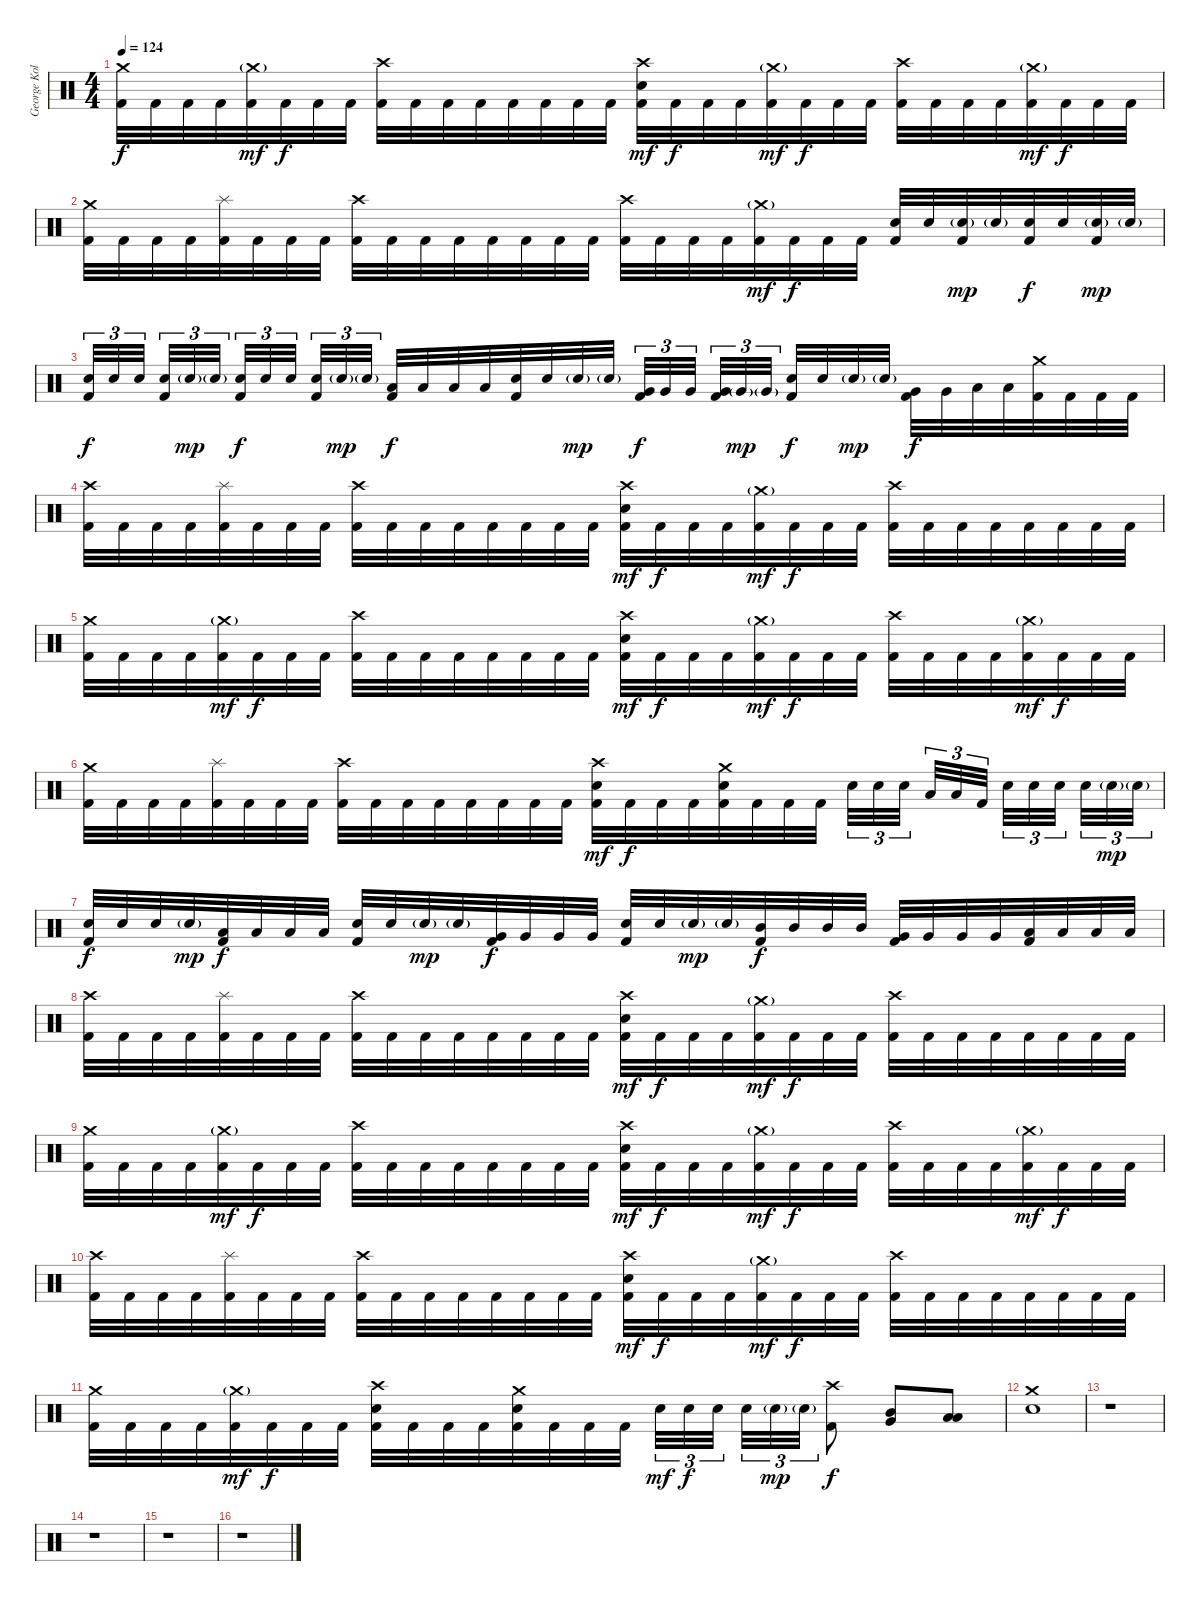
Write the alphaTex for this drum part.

\track ("George Kollias" "George Kol") {instrument percussion}
\staff {score}
\articulation defaults
\ts (4 4)
\tempo 124
\clef neutral
\ks c
("Crash medium (hit)" "Kick (hit) 2").32{dy f} "Kick (hit) 2".32 "Kick (hit) 2".32 "Kick (hit) 2".32 ("Crash medium (hit)"{g} "Kick (hit) 2").32{dy mf} "Kick (hit) 2".32{dy f} "Kick (hit) 2".32 "Kick (hit) 2".32 ("Crash high (hit)" "Kick (hit) 2").32 "Kick (hit) 2".32 "Kick (hit) 2".32 "Kick (hit) 2".32 "Kick (hit) 2".32 "Kick (hit) 2".32 "Kick (hit) 2".32 "Kick (hit) 2".32 ("Crash high (hit)" "Electric Snare (hit)" "Kick (hit) 2").32{dy mf} "Kick (hit) 2".32{dy f} "Kick (hit) 2".32 "Kick (hit) 2".32 ("Crash medium (hit)"{g} "Kick (hit) 2").32{dy mf} "Kick (hit) 2".32{dy f} "Kick (hit) 2".32 "Kick (hit) 2".32 ("Crash high (hit)" "Kick (hit) 2").32 "Kick (hit) 2".32 "Kick (hit) 2".32 "Kick (hit) 2".32 ("Crash medium (hit)"{g} "Kick (hit) 2").32{dy mf} "Kick (hit) 2".32{dy f} "Kick (hit) 2".32 "Kick (hit) 2".32 |
("Crash medium (hit)" "Kick (hit) 2").32 "Kick (hit) 2".32 "Kick (hit) 2".32 "Kick (hit) 2".32 ("Splash (hit)" "Kick (hit) 2").32 "Kick (hit) 2".32 "Kick (hit) 2".32 "Kick (hit) 2".32 ("Crash high (hit)" "Kick (hit) 2").32 "Kick (hit) 2".32 "Kick (hit) 2".32 "Kick (hit) 2".32 "Kick (hit) 2".32 "Kick (hit) 2".32 "Kick (hit) 2".32 "Kick (hit) 2".32 ("Crash high (hit)" "Kick (hit) 2").32 "Kick (hit) 2".32 "Kick (hit) 2".32 "Kick (hit) 2".32 ("Crash medium (hit)"{g} "Kick (hit) 2").32{dy mf} "Kick (hit) 2".32{dy f} "Kick (hit) 2".32 "Kick (hit) 2".32 ("Electric Snare (hit)" "Kick (hit) 2").32 "Electric Snare (hit)".32 ("Electric Snare (hit)"{g} "Kick (hit) 2").32{dy mp} "Electric Snare (hit)"{g}.32 ("Electric Snare (hit)" "Kick (hit) 2").32{dy f} "Electric Snare (hit)".32 ("Electric Snare (hit)"{g} "Kick (hit) 2").32{dy mp} "Electric Snare (hit)"{g}.32 |
("Electric Snare (hit)" "Kick (hit) 2").32{tu (3 2) dy f} "Electric Snare (hit)".32{tu (3 2)} "Electric Snare (hit)".32{tu (3 2) beam splitsecondary} ("Electric Snare (hit)" "Kick (hit) 2").32{tu (3 2)} "Electric Snare (hit)"{g}.32{tu (3 2) dy mp} "Electric Snare (hit)"{g}.32{tu (3 2) beam splitsecondary} ("Electric Snare (hit)" "Kick (hit) 2").32{tu (3 2) dy f} "Electric Snare (hit)".32{tu (3 2)} "Electric Snare (hit)".32{tu (3 2) beam splitsecondary} ("Electric Snare (hit)" "Kick (hit) 2").32{tu (3 2)} "Electric Snare (hit)"{g}.32{tu (3 2) dy mp} "Electric Snare (hit)"{g}.32{tu (3 2)} ("Low Tom (hit)" "Kick (hit) 2").32{dy f} "Low Tom (hit)".32 "Low Tom (hit)".32 "Low Tom (hit)".32 ("Electric Snare (hit)" "Kick (hit) 2").32 "Electric Snare (hit)".32 "Electric Snare (hit)"{g}.32{dy mp} "Electric Snare (hit)"{g}.32 ("Very Low Tom (hit)" "Kick (hit) 2").32{tu (3 2) dy f} "Very Low Tom (hit)".32{tu (3 2)} "Very Low Tom (hit)".32{tu (3 2) beam splitsecondary} ("Very Low Tom (hit)" "Kick (hit) 2").32{tu (3 2)} "Very Low Tom (hit)"{g}.32{tu (3 2) dy mp} "Very Low Tom (hit)"{g}.32{tu (3 2) beam splitsecondary} ("Electric Snare (hit)" "Kick (hit) 2").32{dy f} "Electric Snare (hit)".32 "Electric Snare (hit)"{g}.32{dy mp} "Electric Snare (hit)"{g}.32 ("Very Low Tom (hit)" "Kick (hit) 2").32{dy f} "Very Low Tom (hit)".32 "Low Floor Tom (hit)".32 "Low Floor Tom (hit)".32 ("Crash medium (hit)" "Kick (hit) 2").32 "Kick (hit) 2".32 "Kick (hit) 2".32 "Kick (hit) 2".32 |
("Crash high (hit)" "Kick (hit) 2").32 "Kick (hit) 2".32 "Kick (hit) 2".32 "Kick (hit) 2".32 ("Splash (hit)" "Kick (hit) 2").32 "Kick (hit) 2".32 "Kick (hit) 2".32 "Kick (hit) 2".32 ("Crash high (hit)" "Kick (hit) 2").32 "Kick (hit) 2".32 "Kick (hit) 2".32 "Kick (hit) 2".32 "Kick (hit) 2".32 "Kick (hit) 2".32 "Kick (hit) 2".32 "Kick (hit) 2".32 ("Crash high (hit)" "Electric Snare (hit)" "Kick (hit) 2").32{dy mf} "Kick (hit) 2".32{dy f} "Kick (hit) 2".32 "Kick (hit) 2".32 ("Crash medium (hit)"{g} "Kick (hit) 2").32{dy mf} "Kick (hit) 2".32{dy f} "Kick (hit) 2".32 "Kick (hit) 2".32 ("Crash high (hit)" "Kick (hit) 2").32 "Kick (hit) 2".32 "Kick (hit) 2".32 "Kick (hit) 2".32 "Kick (hit) 2".32 "Kick (hit) 2".32 "Kick (hit) 2".32 "Kick (hit) 2".32 |
("Crash medium (hit)" "Kick (hit) 2").32 "Kick (hit) 2".32 "Kick (hit) 2".32 "Kick (hit) 2".32 ("Crash medium (hit)"{g} "Kick (hit) 2").32{dy mf} "Kick (hit) 2".32{dy f} "Kick (hit) 2".32 "Kick (hit) 2".32 ("Crash high (hit)" "Kick (hit) 2").32 "Kick (hit) 2".32 "Kick (hit) 2".32 "Kick (hit) 2".32 "Kick (hit) 2".32 "Kick (hit) 2".32 "Kick (hit) 2".32 "Kick (hit) 2".32 ("Crash high (hit)" "Electric Snare (hit)" "Kick (hit) 2").32{dy mf} "Kick (hit) 2".32{dy f} "Kick (hit) 2".32 "Kick (hit) 2".32 ("Crash medium (hit)"{g} "Kick (hit) 2").32{dy mf} "Kick (hit) 2".32{dy f} "Kick (hit) 2".32 "Kick (hit) 2".32 ("Crash high (hit)" "Kick (hit) 2").32 "Kick (hit) 2".32 "Kick (hit) 2".32 "Kick (hit) 2".32 ("Crash medium (hit)"{g} "Kick (hit) 2").32{dy mf} "Kick (hit) 2".32{dy f} "Kick (hit) 2".32 "Kick (hit) 2".32 |
("Crash medium (hit)" "Kick (hit) 2").32 "Kick (hit) 2".32 "Kick (hit) 2".32 "Kick (hit) 2".32 ("Splash (hit)" "Kick (hit) 2").32 "Kick (hit) 2".32 "Kick (hit) 2".32 "Kick (hit) 2".32 ("Crash high (hit)" "Kick (hit) 2").32 "Kick (hit) 2".32 "Kick (hit) 2".32 "Kick (hit) 2".32 "Kick (hit) 2".32 "Kick (hit) 2".32 "Kick (hit) 2".32 "Kick (hit) 2".32 ("Crash high (hit)" "Electric Snare (hit)" "Kick (hit) 2").32{dy mf} "Kick (hit) 2".32{dy f} "Kick (hit) 2".32 "Kick (hit) 2".32 ("Crash medium (hit)" "Electric Snare (hit)" "Kick (hit) 2").32 "Kick (hit) 2".32 "Kick (hit) 2".32 "Kick (hit) 2".32 "Electric Snare (hit)".32{tu (3 2)} "Electric Snare (hit)".32{tu (3 2)} "Electric Snare (hit)".32{tu (3 2) beam splitsecondary} "Low Tom (hit)".32{tu (3 2)} "Low Tom (hit)".32{tu (3 2)} "Kick (hit) 2".32{tu (3 2) beam splitsecondary} "Electric Snare (hit)".32{tu (3 2)} "Electric Snare (hit)".32{tu (3 2)} "Electric Snare (hit)".32{tu (3 2) beam splitsecondary} "Electric Snare (hit)".32{tu (3 2)} "Electric Snare (hit)"{g}.32{tu (3 2) dy mp} "Electric Snare (hit)"{g}.32{tu (3 2)} |
("Electric Snare (hit)" "Kick (hit) 2").32{dy f} "Electric Snare (hit)".32 "Electric Snare (hit)".32 "Electric Snare (hit)"{g}.32{dy mp} ("Low Tom (hit)" "Kick (hit) 2").32{dy f} "Low Tom (hit)".32 "Low Tom (hit)".32 "Low Tom (hit)".32 ("Electric Snare (hit)" "Kick (hit) 2").32 "Electric Snare (hit)".32 "Electric Snare (hit)"{g}.32{dy mp} "Electric Snare (hit)"{g}.32 ("Very Low Tom (hit)" "Kick (hit) 2").32{dy f} "Very Low Tom (hit)".32 "Very Low Tom (hit)".32 "Very Low Tom (hit)".32 ("Electric Snare (hit)" "Kick (hit) 2").32 "Electric Snare (hit)".32 "Electric Snare (hit)"{g}.32{dy mp} "Electric Snare (hit)"{g}.32 ("Mid Tom (hit)" "Kick (hit) 2").32{dy f} "Mid Tom (hit)".32 "Mid Tom (hit)".32 "Mid Tom (hit)".32 ("Very Low Tom (hit)" "Kick (hit) 2").32 "Very Low Tom (hit)".32 "Very Low Tom (hit)".32 "Very Low Tom (hit)".32 ("Low Floor Tom (hit)" "Kick (hit) 2").32 "Low Floor Tom (hit)".32 "Low Floor Tom (hit)".32 "Low Floor Tom (hit)".32 |
("Crash high (hit)" "Kick (hit) 2").32 "Kick (hit) 2".32 "Kick (hit) 2".32 "Kick (hit) 2".32 ("Splash (hit)" "Kick (hit) 2").32 "Kick (hit) 2".32 "Kick (hit) 2".32 "Kick (hit) 2".32 ("Crash high (hit)" "Kick (hit) 2").32 "Kick (hit) 2".32 "Kick (hit) 2".32 "Kick (hit) 2".32 "Kick (hit) 2".32 "Kick (hit) 2".32 "Kick (hit) 2".32 "Kick (hit) 2".32 ("Crash high (hit)" "Electric Snare (hit)" "Kick (hit) 2").32{dy mf} "Kick (hit) 2".32{dy f} "Kick (hit) 2".32 "Kick (hit) 2".32 ("Crash medium (hit)"{g} "Kick (hit) 2").32{dy mf} "Kick (hit) 2".32{dy f} "Kick (hit) 2".32 "Kick (hit) 2".32 ("Crash high (hit)" "Kick (hit) 2").32 "Kick (hit) 2".32 "Kick (hit) 2".32 "Kick (hit) 2".32 "Kick (hit) 2".32 "Kick (hit) 2".32 "Kick (hit) 2".32 "Kick (hit) 2".32 |
("Crash medium (hit)" "Kick (hit) 2").32 "Kick (hit) 2".32 "Kick (hit) 2".32 "Kick (hit) 2".32 ("Crash medium (hit)"{g} "Kick (hit) 2").32{dy mf} "Kick (hit) 2".32{dy f} "Kick (hit) 2".32 "Kick (hit) 2".32 ("Crash high (hit)" "Kick (hit) 2").32 "Kick (hit) 2".32 "Kick (hit) 2".32 "Kick (hit) 2".32 "Kick (hit) 2".32 "Kick (hit) 2".32 "Kick (hit) 2".32 "Kick (hit) 2".32 ("Crash high (hit)" "Electric Snare (hit)" "Kick (hit) 2").32{dy mf} "Kick (hit) 2".32{dy f} "Kick (hit) 2".32 "Kick (hit) 2".32 ("Crash medium (hit)"{g} "Kick (hit) 2").32{dy mf} "Kick (hit) 2".32{dy f} "Kick (hit) 2".32 "Kick (hit) 2".32 ("Crash high (hit)" "Kick (hit) 2").32 "Kick (hit) 2".32 "Kick (hit) 2".32 "Kick (hit) 2".32 ("Crash medium (hit)"{g} "Kick (hit) 2").32{dy mf} "Kick (hit) 2".32{dy f} "Kick (hit) 2".32 "Kick (hit) 2".32 |
("Crash high (hit)" "Kick (hit) 2").32 "Kick (hit) 2".32 "Kick (hit) 2".32 "Kick (hit) 2".32 ("Splash (hit)" "Kick (hit) 2").32 "Kick (hit) 2".32 "Kick (hit) 2".32 "Kick (hit) 2".32 ("Crash high (hit)" "Kick (hit) 2").32 "Kick (hit) 2".32 "Kick (hit) 2".32 "Kick (hit) 2".32 "Kick (hit) 2".32 "Kick (hit) 2".32 "Kick (hit) 2".32 "Kick (hit) 2".32 ("Crash high (hit)" "Electric Snare (hit)" "Kick (hit) 2").32{dy mf} "Kick (hit) 2".32{dy f} "Kick (hit) 2".32 "Kick (hit) 2".32 ("Crash medium (hit)"{g} "Kick (hit) 2").32{dy mf} "Kick (hit) 2".32{dy f} "Kick (hit) 2".32 "Kick (hit) 2".32 ("Crash high (hit)" "Kick (hit) 2").32 "Kick (hit) 2".32 "Kick (hit) 2".32 "Kick (hit) 2".32 "Kick (hit) 2".32 "Kick (hit) 2".32 "Kick (hit) 2".32 "Kick (hit) 2".32 |
("Crash medium (hit)" "Kick (hit) 2").32 "Kick (hit) 2".32 "Kick (hit) 2".32 "Kick (hit) 2".32 ("Crash medium (hit)"{g} "Kick (hit) 2").32{dy mf} "Kick (hit) 2".32{dy f} "Kick (hit) 2".32 "Kick (hit) 2".32 ("Crash high (hit)" "Electric Snare (hit)" "Kick (hit) 2").32 "Kick (hit) 2".32 "Kick (hit) 2".32 "Kick (hit) 2".32 ("Crash medium (hit)" "Electric Snare (hit)" "Kick (hit) 2").32 "Kick (hit) 2".32 "Kick (hit) 2".32 "Kick (hit) 2".32 "Electric Snare (hit)".32{tu (3 2) dy mf} "Electric Snare (hit)".32{tu (3 2) dy f} "Electric Snare (hit)".32{tu (3 2) beam splitsecondary} "Electric Snare (hit)".32{tu (3 2)} "Electric Snare (hit)"{g}.32{tu (3 2) dy mp} "Electric Snare (hit)"{g}.32{tu (3 2)} ("Crash high (hit)" "Kick (hit) 2").8{dy f} ("Mid Tom (hit)" "Very Low Tom (hit)").8 ("Low Tom (hit)" "Low Floor Tom (hit)").8 |
("Crash medium (hit)" "Electric Snare (hit)").1 |
r.1 |
r.1 |
r.1 |
r.1
